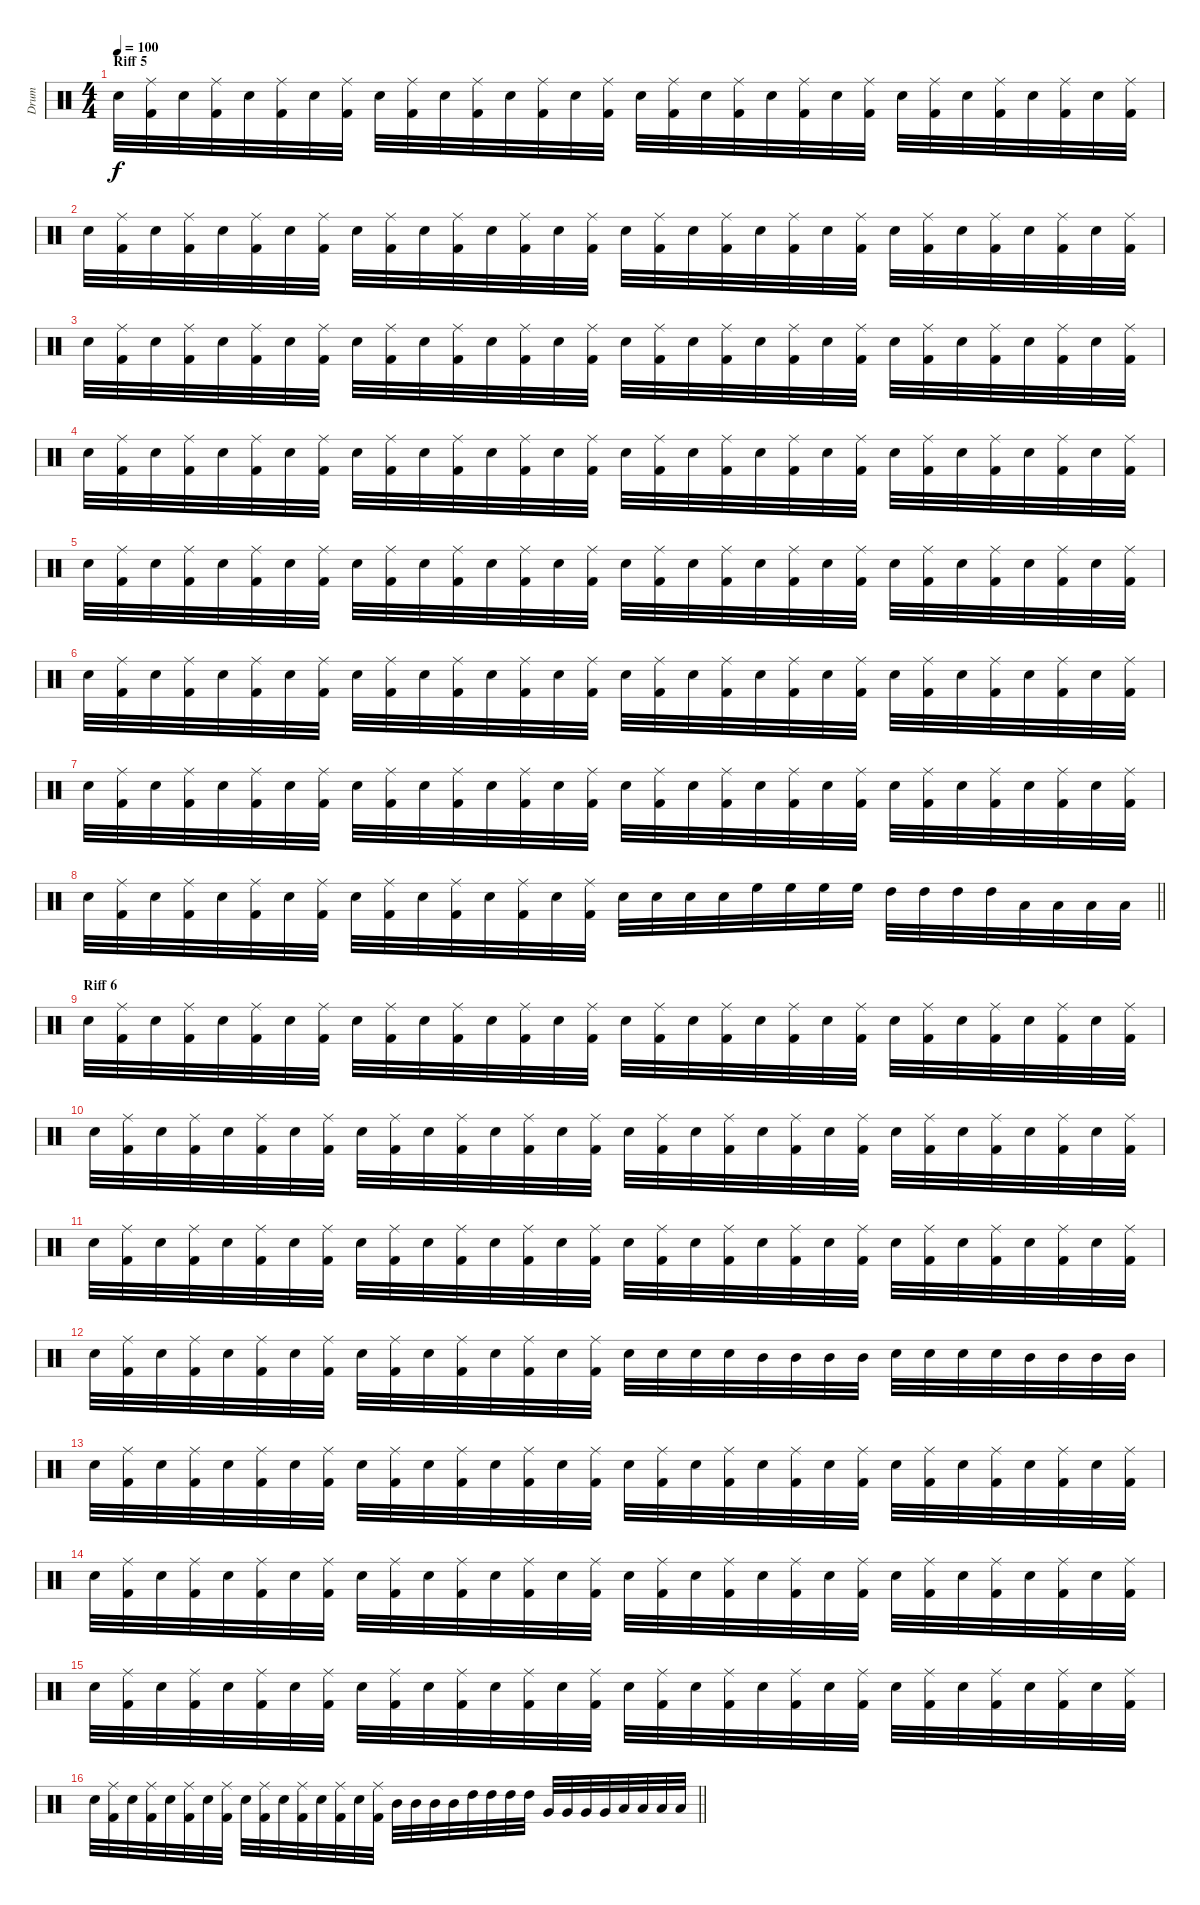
\track ("Drum" "Drum") {instrument percussion}
\staff {score}
\articulation defaults
\ts (4 4)
\section ("" "Riff 5")
\tempo 100
\clef neutral
\ks c "Electric Snare (hit)".32{dy f}
("Ride (middle)" "Kick (hit) 2").32 "Electric Snare (hit)".32 ("Ride (middle)" "Kick (hit) 2").32 "Electric Snare (hit)".32 ("Ride (middle)" "Kick (hit) 2").32 "Electric Snare (hit)".32 ("Ride (middle)" "Kick (hit) 2").32 "Electric Snare (hit)".32 ("Ride (middle)" "Kick (hit) 2").32 "Electric Snare (hit)".32 ("Ride (middle)" "Kick (hit) 2").32 "Electric Snare (hit)".32 ("Ride (middle)" "Kick (hit) 2").32 "Electric Snare (hit)".32 ("Ride (middle)" "Kick (hit) 2").32 "Electric Snare (hit)".32 ("Ride (middle)" "Kick (hit) 2").32 "Electric Snare (hit)".32 ("Ride (middle)" "Kick (hit) 2").32 "Electric Snare (hit)".32 ("Ride (middle)" "Kick (hit) 2").32 "Electric Snare (hit)".32 ("Ride (middle)" "Kick (hit) 2").32 "Electric Snare (hit)".32 ("Ride (middle)" "Kick (hit) 2").32 "Electric Snare (hit)".32 ("Ride (middle)" "Kick (hit) 2").32 "Electric Snare (hit)".32 ("Ride (middle)" "Kick (hit) 2").32 "Electric Snare (hit)".32 ("Ride (middle)" "Kick (hit) 2").32 |
"Electric Snare (hit)".32 ("Ride (middle)" "Kick (hit) 2").32 "Electric Snare (hit)".32 ("Ride (middle)" "Kick (hit) 2").32 "Electric Snare (hit)".32 ("Ride (middle)" "Kick (hit) 2").32 "Electric Snare (hit)".32 ("Ride (middle)" "Kick (hit) 2").32 "Electric Snare (hit)".32 ("Ride (middle)" "Kick (hit) 2").32 "Electric Snare (hit)".32 ("Ride (middle)" "Kick (hit) 2").32 "Electric Snare (hit)".32 ("Ride (middle)" "Kick (hit) 2").32 "Electric Snare (hit)".32 ("Ride (middle)" "Kick (hit) 2").32 "Electric Snare (hit)".32 ("Ride (middle)" "Kick (hit) 2").32 "Electric Snare (hit)".32 ("Ride (middle)" "Kick (hit) 2").32 "Electric Snare (hit)".32 ("Ride (middle)" "Kick (hit) 2").32 "Electric Snare (hit)".32 ("Ride (middle)" "Kick (hit) 2").32 "Electric Snare (hit)".32 ("Ride (middle)" "Kick (hit) 2").32 "Electric Snare (hit)".32 ("Ride (middle)" "Kick (hit) 2").32 "Electric Snare (hit)".32 ("Ride (middle)" "Kick (hit) 2").32 "Electric Snare (hit)".32 ("Ride (middle)" "Kick (hit) 2").32 |
"Electric Snare (hit)".32 ("Ride (middle)" "Kick (hit) 2").32 "Electric Snare (hit)".32 ("Ride (middle)" "Kick (hit) 2").32 "Electric Snare (hit)".32 ("Ride (middle)" "Kick (hit) 2").32 "Electric Snare (hit)".32 ("Ride (middle)" "Kick (hit) 2").32 "Electric Snare (hit)".32 ("Ride (middle)" "Kick (hit) 2").32 "Electric Snare (hit)".32 ("Ride (middle)" "Kick (hit) 2").32 "Electric Snare (hit)".32 ("Ride (middle)" "Kick (hit) 2").32 "Electric Snare (hit)".32 ("Ride (middle)" "Kick (hit) 2").32 "Electric Snare (hit)".32 ("Ride (middle)" "Kick (hit) 2").32 "Electric Snare (hit)".32 ("Ride (middle)" "Kick (hit) 2").32 "Electric Snare (hit)".32 ("Ride (middle)" "Kick (hit) 2").32 "Electric Snare (hit)".32 ("Ride (middle)" "Kick (hit) 2").32 "Electric Snare (hit)".32 ("Ride (middle)" "Kick (hit) 2").32 "Electric Snare (hit)".32 ("Ride (middle)" "Kick (hit) 2").32 "Electric Snare (hit)".32 ("Ride (middle)" "Kick (hit) 2").32 "Electric Snare (hit)".32 ("Ride (middle)" "Kick (hit) 2").32 |
"Electric Snare (hit)".32 ("Ride (middle)" "Kick (hit) 2").32 "Electric Snare (hit)".32 ("Ride (middle)" "Kick (hit) 2").32 "Electric Snare (hit)".32 ("Ride (middle)" "Kick (hit) 2").32 "Electric Snare (hit)".32 ("Ride (middle)" "Kick (hit) 2").32 "Electric Snare (hit)".32 ("Ride (middle)" "Kick (hit) 2").32 "Electric Snare (hit)".32 ("Ride (middle)" "Kick (hit) 2").32 "Electric Snare (hit)".32 ("Ride (middle)" "Kick (hit) 2").32 "Electric Snare (hit)".32 ("Ride (middle)" "Kick (hit) 2").32 "Electric Snare (hit)".32 ("Ride (middle)" "Kick (hit) 2").32 "Electric Snare (hit)".32 ("Ride (middle)" "Kick (hit) 2").32 "Electric Snare (hit)".32 ("Ride (middle)" "Kick (hit) 2").32 "Electric Snare (hit)".32 ("Ride (middle)" "Kick (hit) 2").32 "Electric Snare (hit)".32 ("Ride (middle)" "Kick (hit) 2").32 "Electric Snare (hit)".32 ("Ride (middle)" "Kick (hit) 2").32 "Electric Snare (hit)".32 ("Ride (middle)" "Kick (hit) 2").32 "Electric Snare (hit)".32 ("Ride (middle)" "Kick (hit) 2").32 |
"Electric Snare (hit)".32 ("Ride (middle)" "Kick (hit) 2").32 "Electric Snare (hit)".32 ("Ride (middle)" "Kick (hit) 2").32 "Electric Snare (hit)".32 ("Ride (middle)" "Kick (hit) 2").32 "Electric Snare (hit)".32 ("Ride (middle)" "Kick (hit) 2").32 "Electric Snare (hit)".32 ("Ride (middle)" "Kick (hit) 2").32 "Electric Snare (hit)".32 ("Ride (middle)" "Kick (hit) 2").32 "Electric Snare (hit)".32 ("Ride (middle)" "Kick (hit) 2").32 "Electric Snare (hit)".32 ("Ride (middle)" "Kick (hit) 2").32 "Electric Snare (hit)".32 ("Ride (middle)" "Kick (hit) 2").32 "Electric Snare (hit)".32 ("Ride (middle)" "Kick (hit) 2").32 "Electric Snare (hit)".32 ("Ride (middle)" "Kick (hit) 2").32 "Electric Snare (hit)".32 ("Ride (middle)" "Kick (hit) 2").32 "Electric Snare (hit)".32 ("Ride (middle)" "Kick (hit) 2").32 "Electric Snare (hit)".32 ("Ride (middle)" "Kick (hit) 2").32 "Electric Snare (hit)".32 ("Ride (middle)" "Kick (hit) 2").32 "Electric Snare (hit)".32 ("Ride (middle)" "Kick (hit) 2").32 |
"Electric Snare (hit)".32 ("Ride (middle)" "Kick (hit) 2").32 "Electric Snare (hit)".32 ("Ride (middle)" "Kick (hit) 2").32 "Electric Snare (hit)".32 ("Ride (middle)" "Kick (hit) 2").32 "Electric Snare (hit)".32 ("Ride (middle)" "Kick (hit) 2").32 "Electric Snare (hit)".32 ("Ride (middle)" "Kick (hit) 2").32 "Electric Snare (hit)".32 ("Ride (middle)" "Kick (hit) 2").32 "Electric Snare (hit)".32 ("Ride (middle)" "Kick (hit) 2").32 "Electric Snare (hit)".32 ("Ride (middle)" "Kick (hit) 2").32 "Electric Snare (hit)".32 ("Ride (middle)" "Kick (hit) 2").32 "Electric Snare (hit)".32 ("Ride (middle)" "Kick (hit) 2").32 "Electric Snare (hit)".32 ("Ride (middle)" "Kick (hit) 2").32 "Electric Snare (hit)".32 ("Ride (middle)" "Kick (hit) 2").32 "Electric Snare (hit)".32 ("Ride (middle)" "Kick (hit) 2").32 "Electric Snare (hit)".32 ("Ride (middle)" "Kick (hit) 2").32 "Electric Snare (hit)".32 ("Ride (middle)" "Kick (hit) 2").32 "Electric Snare (hit)".32 ("Ride (middle)" "Kick (hit) 2").32 |
"Electric Snare (hit)".32 ("Ride (middle)" "Kick (hit) 2").32 "Electric Snare (hit)".32 ("Ride (middle)" "Kick (hit) 2").32 "Electric Snare (hit)".32 ("Ride (middle)" "Kick (hit) 2").32 "Electric Snare (hit)".32 ("Ride (middle)" "Kick (hit) 2").32 "Electric Snare (hit)".32 ("Ride (middle)" "Kick (hit) 2").32 "Electric Snare (hit)".32 ("Ride (middle)" "Kick (hit) 2").32 "Electric Snare (hit)".32 ("Ride (middle)" "Kick (hit) 2").32 "Electric Snare (hit)".32 ("Ride (middle)" "Kick (hit) 2").32 "Electric Snare (hit)".32 ("Ride (middle)" "Kick (hit) 2").32 "Electric Snare (hit)".32 ("Ride (middle)" "Kick (hit) 2").32 "Electric Snare (hit)".32 ("Ride (middle)" "Kick (hit) 2").32 "Electric Snare (hit)".32 ("Ride (middle)" "Kick (hit) 2").32 "Electric Snare (hit)".32 ("Ride (middle)" "Kick (hit) 2").32 "Electric Snare (hit)".32 ("Ride (middle)" "Kick (hit) 2").32 "Electric Snare (hit)".32 ("Ride (middle)" "Kick (hit) 2").32 "Electric Snare (hit)".32 ("Ride (middle)" "Kick (hit) 2").32 |
\barLineRight lightlight "Electric Snare (hit)".32
("Ride (middle)" "Kick (hit) 2").32 "Electric Snare (hit)".32 ("Ride (middle)" "Kick (hit) 2").32 "Electric Snare (hit)".32 ("Ride (middle)" "Kick (hit) 2").32 "Electric Snare (hit)".32 ("Ride (middle)" "Kick (hit) 2").32 "Electric Snare (hit)".32 ("Ride (middle)" "Kick (hit) 2").32 "Electric Snare (hit)".32 ("Ride (middle)" "Kick (hit) 2").32 "Electric Snare (hit)".32 ("Ride (middle)" "Kick (hit) 2").32 "Electric Snare (hit)".32 ("Ride (middle)" "Kick (hit) 2").32 "Electric Snare (hit)".32 "Electric Snare (hit)".32 "Electric Snare (hit)".32 "Electric Snare (hit)".32 "High Floor Tom (hit)".32 "High Floor Tom (hit)".32 "High Floor Tom (hit)".32 "High Floor Tom (hit)".32 "High Tom (hit)".32 "High Tom (hit)".32 "High Tom (hit)".32 "High Tom (hit)".32 "Low Tom (hit)".32 "Low Tom (hit)".32 "Low Tom (hit)".32 "Low Tom (hit)".32 |
\section ("" "Riff 6")
"Electric Snare (hit)".32 ("Ride (middle)" "Kick (hit) 2").32 "Electric Snare (hit)".32 ("Ride (middle)" "Kick (hit) 2").32 "Electric Snare (hit)".32 ("Ride (middle)" "Kick (hit) 2").32 "Electric Snare (hit)".32 ("Ride (middle)" "Kick (hit) 2").32 "Electric Snare (hit)".32 ("Ride (middle)" "Kick (hit) 2").32 "Electric Snare (hit)".32 ("Ride (middle)" "Kick (hit) 2").32 "Electric Snare (hit)".32 ("Ride (middle)" "Kick (hit) 2").32 "Electric Snare (hit)".32 ("Ride (middle)" "Kick (hit) 2").32 "Electric Snare (hit)".32 ("Ride (middle)" "Kick (hit) 2").32 "Electric Snare (hit)".32 ("Ride (middle)" "Kick (hit) 2").32 "Electric Snare (hit)".32 ("Ride (middle)" "Kick (hit) 2").32 "Electric Snare (hit)".32 ("Ride (middle)" "Kick (hit) 2").32 "Electric Snare (hit)".32 ("Ride (middle)" "Kick (hit) 2").32 "Electric Snare (hit)".32 ("Ride (middle)" "Kick (hit) 2").32 "Electric Snare (hit)".32 ("Ride (middle)" "Kick (hit) 2").32 "Electric Snare (hit)".32 ("Ride (middle)" "Kick (hit) 2").32 |
"Electric Snare (hit)".32 ("Ride (middle)" "Kick (hit) 2").32 "Electric Snare (hit)".32 ("Ride (middle)" "Kick (hit) 2").32 "Electric Snare (hit)".32 ("Ride (middle)" "Kick (hit) 2").32 "Electric Snare (hit)".32 ("Ride (middle)" "Kick (hit) 2").32 "Electric Snare (hit)".32 ("Ride (middle)" "Kick (hit) 2").32 "Electric Snare (hit)".32 ("Ride (middle)" "Kick (hit) 2").32 "Electric Snare (hit)".32 ("Ride (middle)" "Kick (hit) 2").32 "Electric Snare (hit)".32 ("Ride (middle)" "Kick (hit) 2").32 "Electric Snare (hit)".32 ("Ride (middle)" "Kick (hit) 2").32 "Electric Snare (hit)".32 ("Ride (middle)" "Kick (hit) 2").32 "Electric Snare (hit)".32 ("Ride (middle)" "Kick (hit) 2").32 "Electric Snare (hit)".32 ("Ride (middle)" "Kick (hit) 2").32 "Electric Snare (hit)".32 ("Ride (middle)" "Kick (hit) 2").32 "Electric Snare (hit)".32 ("Ride (middle)" "Kick (hit) 2").32 "Electric Snare (hit)".32 ("Ride (middle)" "Kick (hit) 2").32 "Electric Snare (hit)".32 ("Ride (middle)" "Kick (hit) 2").32 |
"Electric Snare (hit)".32 ("Ride (middle)" "Kick (hit) 2").32 "Electric Snare (hit)".32 ("Ride (middle)" "Kick (hit) 2").32 "Electric Snare (hit)".32 ("Ride (middle)" "Kick (hit) 2").32 "Electric Snare (hit)".32 ("Ride (middle)" "Kick (hit) 2").32 "Electric Snare (hit)".32 ("Ride (middle)" "Kick (hit) 2").32 "Electric Snare (hit)".32 ("Ride (middle)" "Kick (hit) 2").32 "Electric Snare (hit)".32 ("Ride (middle)" "Kick (hit) 2").32 "Electric Snare (hit)".32 ("Ride (middle)" "Kick (hit) 2").32 "Electric Snare (hit)".32 ("Ride (middle)" "Kick (hit) 2").32 "Electric Snare (hit)".32 ("Ride (middle)" "Kick (hit) 2").32 "Electric Snare (hit)".32 ("Ride (middle)" "Kick (hit) 2").32 "Electric Snare (hit)".32 ("Ride (middle)" "Kick (hit) 2").32 "Electric Snare (hit)".32 ("Ride (middle)" "Kick (hit) 2").32 "Electric Snare (hit)".32 ("Ride (middle)" "Kick (hit) 2").32 "Electric Snare (hit)".32 ("Ride (middle)" "Kick (hit) 2").32 "Electric Snare (hit)".32 ("Ride (middle)" "Kick (hit) 2").32 |
"Electric Snare (hit)".32 ("Ride (middle)" "Kick (hit) 2").32 "Electric Snare (hit)".32 ("Ride (middle)" "Kick (hit) 2").32 "Electric Snare (hit)".32 ("Ride (middle)" "Kick (hit) 2").32 "Electric Snare (hit)".32 ("Ride (middle)" "Kick (hit) 2").32 "Electric Snare (hit)".32 ("Ride (middle)" "Kick (hit) 2").32 "Electric Snare (hit)".32 ("Ride (middle)" "Kick (hit) 2").32 "Electric Snare (hit)".32 ("Ride (middle)" "Kick (hit) 2").32 "Electric Snare (hit)".32 ("Ride (middle)" "Kick (hit) 2").32 "Electric Snare (hit)".32 "Electric Snare (hit)".32 "Electric Snare (hit)".32 "Electric Snare (hit)".32 "Mid Tom (hit)".32 "Mid Tom (hit)".32 "Mid Tom (hit)".32 "Mid Tom (hit)".32 "Electric Snare (hit)".32 "Electric Snare (hit)".32 "Electric Snare (hit)".32 "Electric Snare (hit)".32 "Mid Tom (hit)".32 "Mid Tom (hit)".32 "Mid Tom (hit)".32 "Mid Tom (hit)".32 |
"Electric Snare (hit)".32 ("Ride (middle)" "Kick (hit) 2").32 "Electric Snare (hit)".32 ("Ride (middle)" "Kick (hit) 2").32 "Electric Snare (hit)".32 ("Ride (middle)" "Kick (hit) 2").32 "Electric Snare (hit)".32 ("Ride (middle)" "Kick (hit) 2").32 "Electric Snare (hit)".32 ("Ride (middle)" "Kick (hit) 2").32 "Electric Snare (hit)".32 ("Ride (middle)" "Kick (hit) 2").32 "Electric Snare (hit)".32 ("Ride (middle)" "Kick (hit) 2").32 "Electric Snare (hit)".32 ("Ride (middle)" "Kick (hit) 2").32 "Electric Snare (hit)".32 ("Ride (middle)" "Kick (hit) 2").32 "Electric Snare (hit)".32 ("Ride (middle)" "Kick (hit) 2").32 "Electric Snare (hit)".32 ("Ride (middle)" "Kick (hit) 2").32 "Electric Snare (hit)".32 ("Ride (middle)" "Kick (hit) 2").32 "Electric Snare (hit)".32 ("Ride (middle)" "Kick (hit) 2").32 "Electric Snare (hit)".32 ("Ride (middle)" "Kick (hit) 2").32 "Electric Snare (hit)".32 ("Ride (middle)" "Kick (hit) 2").32 "Electric Snare (hit)".32 ("Ride (middle)" "Kick (hit) 2").32 |
"Electric Snare (hit)".32 ("Ride (middle)" "Kick (hit) 2").32 "Electric Snare (hit)".32 ("Ride (middle)" "Kick (hit) 2").32 "Electric Snare (hit)".32 ("Ride (middle)" "Kick (hit) 2").32 "Electric Snare (hit)".32 ("Ride (middle)" "Kick (hit) 2").32 "Electric Snare (hit)".32 ("Ride (middle)" "Kick (hit) 2").32 "Electric Snare (hit)".32 ("Ride (middle)" "Kick (hit) 2").32 "Electric Snare (hit)".32 ("Ride (middle)" "Kick (hit) 2").32 "Electric Snare (hit)".32 ("Ride (middle)" "Kick (hit) 2").32 "Electric Snare (hit)".32 ("Ride (middle)" "Kick (hit) 2").32 "Electric Snare (hit)".32 ("Ride (middle)" "Kick (hit) 2").32 "Electric Snare (hit)".32 ("Ride (middle)" "Kick (hit) 2").32 "Electric Snare (hit)".32 ("Ride (middle)" "Kick (hit) 2").32 "Electric Snare (hit)".32 ("Ride (middle)" "Kick (hit) 2").32 "Electric Snare (hit)".32 ("Ride (middle)" "Kick (hit) 2").32 "Electric Snare (hit)".32 ("Ride (middle)" "Kick (hit) 2").32 "Electric Snare (hit)".32 ("Ride (middle)" "Kick (hit) 2").32 |
"Electric Snare (hit)".32 ("Ride (middle)" "Kick (hit) 2").32 "Electric Snare (hit)".32 ("Ride (middle)" "Kick (hit) 2").32 "Electric Snare (hit)".32 ("Ride (middle)" "Kick (hit) 2").32 "Electric Snare (hit)".32 ("Ride (middle)" "Kick (hit) 2").32 "Electric Snare (hit)".32 ("Ride (middle)" "Kick (hit) 2").32 "Electric Snare (hit)".32 ("Ride (middle)" "Kick (hit) 2").32 "Electric Snare (hit)".32 ("Ride (middle)" "Kick (hit) 2").32 "Electric Snare (hit)".32 ("Ride (middle)" "Kick (hit) 2").32 "Electric Snare (hit)".32 ("Ride (middle)" "Kick (hit) 2").32 "Electric Snare (hit)".32 ("Ride (middle)" "Kick (hit) 2").32 "Electric Snare (hit)".32 ("Ride (middle)" "Kick (hit) 2").32 "Electric Snare (hit)".32 ("Ride (middle)" "Kick (hit) 2").32 "Electric Snare (hit)".32 ("Ride (middle)" "Kick (hit) 2").32 "Electric Snare (hit)".32 ("Ride (middle)" "Kick (hit) 2").32 "Electric Snare (hit)".32 ("Ride (middle)" "Kick (hit) 2").32 "Electric Snare (hit)".32 ("Ride (middle)" "Kick (hit) 2").32 |
\barLineRight lightlight "Electric Snare (hit)".32
("Ride (middle)" "Kick (hit) 2").32 "Electric Snare (hit)".32 ("Ride (middle)" "Kick (hit) 2").32 "Electric Snare (hit)".32 ("Ride (middle)" "Kick (hit) 2").32 "Electric Snare (hit)".32 ("Ride (middle)" "Kick (hit) 2").32 "Electric Snare (hit)".32 ("Ride (middle)" "Kick (hit) 2").32 "Electric Snare (hit)".32 ("Ride (middle)" "Kick (hit) 2").32 "Electric Snare (hit)".32 ("Ride (middle)" "Kick (hit) 2").32 "Electric Snare (hit)".32 ("Ride (middle)" "Kick (hit) 2").32 "Mid Tom (hit)".32 "Mid Tom (hit)".32 "Mid Tom (hit)".32 "Mid Tom (hit)".32 "High Tom (hit)".32 "High Tom (hit)".32 "High Tom (hit)".32 "High Tom (hit)".32 "Very Low Tom (hit)".32 "Very Low Tom (hit)".32 "Very Low Tom (hit)".32 "Very Low Tom (hit)".32 "Low Tom (hit)".32 "Low Tom (hit)".32 "Low Tom (hit)".32 "Low Tom (hit)".32
